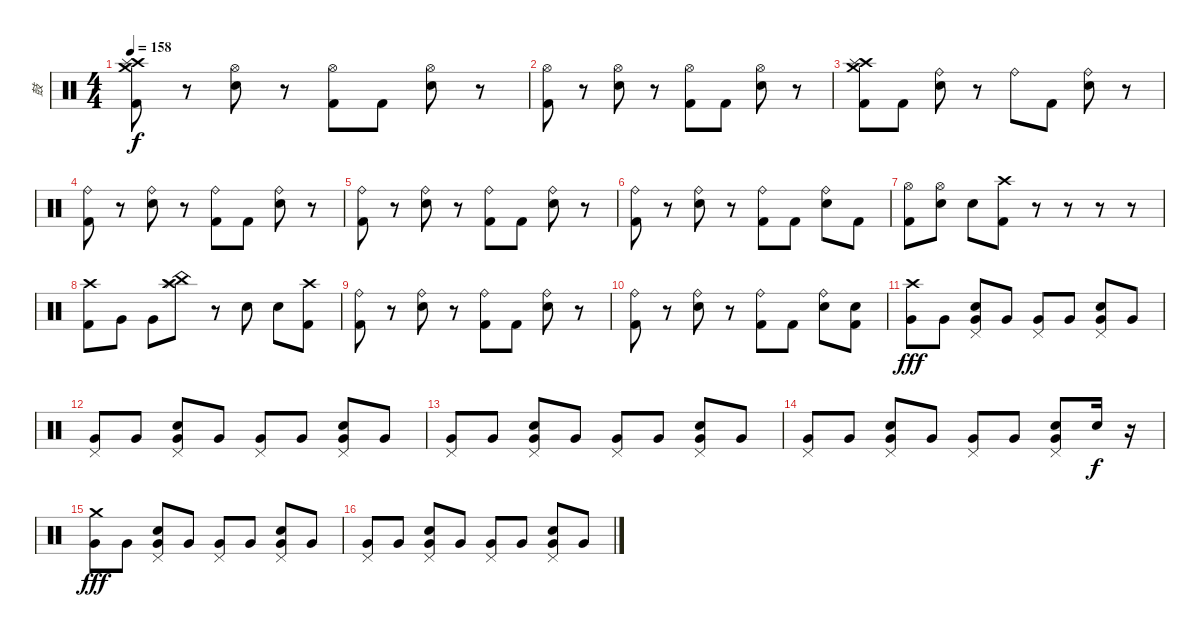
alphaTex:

\track ("鼓" "鼓") {instrument percussion}
\staff {score}
\articulation defaults
\ts (4 4)
\tempo 158
\clef neutral
\ks c
("Crash high (hit)" "Splash (hit)" "Crash medium (hit)" "Kick (hit) 2").8{dy f} r.8 ("Hi-Hat (open)" "Electric Snare (hit)").8 r.8 ("Hi-Hat (open)" "Kick (hit) 2").8 "Kick (hit) 2".8 ("Hi-Hat (open)" "Electric Snare (hit)").8 r.8 |
("Hi-Hat (open)" "Kick (hit) 2").8 r.8 ("Hi-Hat (open)" "Electric Snare (hit)").8 r.8 ("Hi-Hat (open)" "Kick (hit) 2").8 "Kick (hit) 2".8 ("Hi-Hat (open)" "Electric Snare (hit)").8 r.8 |
("Crash high (hit)" "Splash (hit)" "Crash medium (hit)" "Kick (hit) 2").8 "Kick (hit) 2".8 ("Ride (bell)" "Electric Snare (hit)").8 r.8 "Ride (bell)".8 "Kick (hit) 2".8 ("Ride (bell)" "Electric Snare (hit)").8 r.8 |
("Ride (bell)" "Kick (hit) 2").8 r.8 ("Ride (bell)" "Electric Snare (hit)").8 r.8 ("Ride (bell)" "Kick (hit) 2").8 "Kick (hit) 2".8 ("Ride (bell)" "Electric Snare (hit)").8 r.8 |
("Ride (bell)" "Kick (hit) 2").8 r.8 ("Ride (bell)" "Electric Snare (hit)").8 r.8 ("Ride (bell)" "Kick (hit) 2").8 "Kick (hit) 2".8 ("Ride (bell)" "Electric Snare (hit)").8 r.8 |
("Ride (bell)" "Kick (hit) 2").8 r.8 ("Ride (bell)" "Electric Snare (hit)").8 r.8 ("Ride (bell)" "Kick (hit) 2").8 "Kick (hit) 2".8 ("Ride (bell)" "Electric Snare (hit)").8 "Kick (hit) 2".8 |
("Hi-Hat (open)" "Kick (hit) 2").8 ("Hi-Hat (open)" "Electric Snare (hit)").8 "Electric Snare (hit)".8 ("Crash high (hit)" "Kick (hit) 2").8 r.8 r.8 r.8 r.8 |
("Crash high (hit)" "Kick (hit) 2").8 "Very Low Tom (hit)".8 "Very Low Tom (hit)".8 ("Crash high (hit)" "Splash (hit)" "China (hit)").8 r.8 "Electric Snare (hit)".8 "Electric Snare (hit)".8 ("Crash high (hit)" "Kick (hit) 2").8 |
("Ride (bell)" "Kick (hit) 2").8 r.8 ("Ride (bell)" "Electric Snare (hit)").8 r.8 ("Ride (bell)" "Kick (hit) 2").8 "Kick (hit) 2".8 ("Ride (bell)" "Electric Snare (hit)").8 r.8 |
("Ride (bell)" "Kick (hit) 2").8 r.8 ("Ride (bell)" "Electric Snare (hit)").8 r.8 ("Ride (bell)" "Kick (hit) 2").8 "Kick (hit) 2".8 ("Ride (bell)" "Electric Snare (hit)").8 ("Electric Snare (hit)" "Kick (hit) 2").8 |
("Crash high (hit)" "Very Low Tom (hit)").8{dy fff} "Very Low Tom (hit)".8 ("Pedal Hi-Hat (hit)" "Electric Snare (hit)" "Very Low Tom (hit)").8 "Very Low Tom (hit)".8 ("Pedal Hi-Hat (hit)" "Very Low Tom (hit)").8 "Very Low Tom (hit)".8 ("Pedal Hi-Hat (hit)" "Electric Snare (hit)" "Very Low Tom (hit)").8 "Very Low Tom (hit)".8 |
("Pedal Hi-Hat (hit)" "Very Low Tom (hit)").8 "Very Low Tom (hit)".8 ("Pedal Hi-Hat (hit)" "Electric Snare (hit)" "Very Low Tom (hit)").8 "Very Low Tom (hit)".8 ("Pedal Hi-Hat (hit)" "Very Low Tom (hit)").8 "Very Low Tom (hit)".8 ("Pedal Hi-Hat (hit)" "Electric Snare (hit)" "Very Low Tom (hit)").8 "Very Low Tom (hit)".8 |
("Pedal Hi-Hat (hit)" "Very Low Tom (hit)").8 "Very Low Tom (hit)".8 ("Pedal Hi-Hat (hit)" "Electric Snare (hit)" "Very Low Tom (hit)").8 "Very Low Tom (hit)".8 ("Pedal Hi-Hat (hit)" "Very Low Tom (hit)").8 "Very Low Tom (hit)".8 ("Pedal Hi-Hat (hit)" "Electric Snare (hit)" "Very Low Tom (hit)").8 "Very Low Tom (hit)".8 |
("Pedal Hi-Hat (hit)" "Very Low Tom (hit)").8 "Very Low Tom (hit)".8 ("Pedal Hi-Hat (hit)" "Electric Snare (hit)" "Very Low Tom (hit)").8 "Very Low Tom (hit)".8 ("Pedal Hi-Hat (hit)" "Very Low Tom (hit)").8 "Very Low Tom (hit)".8 ("Pedal Hi-Hat (hit)" "Electric Snare (hit)" "Very Low Tom (hit)").8 "Electric Snare (hit)".16{dy f} r.16 |
("Crash medium (hit)" "Very Low Tom (hit)").8{dy fff} "Very Low Tom (hit)".8 ("Pedal Hi-Hat (hit)" "Electric Snare (hit)" "Very Low Tom (hit)").8 "Very Low Tom (hit)".8 ("Pedal Hi-Hat (hit)" "Very Low Tom (hit)").8 "Very Low Tom (hit)".8 ("Pedal Hi-Hat (hit)" "Electric Snare (hit)" "Very Low Tom (hit)").8 "Very Low Tom (hit)".8 |
("Pedal Hi-Hat (hit)" "Very Low Tom (hit)").8 "Very Low Tom (hit)".8 ("Pedal Hi-Hat (hit)" "Electric Snare (hit)" "Very Low Tom (hit)").8 "Very Low Tom (hit)".8 ("Pedal Hi-Hat (hit)" "Very Low Tom (hit)").8 "Very Low Tom (hit)".8 ("Pedal Hi-Hat (hit)" "Electric Snare (hit)" "Very Low Tom (hit)").8 "Very Low Tom (hit)".8
